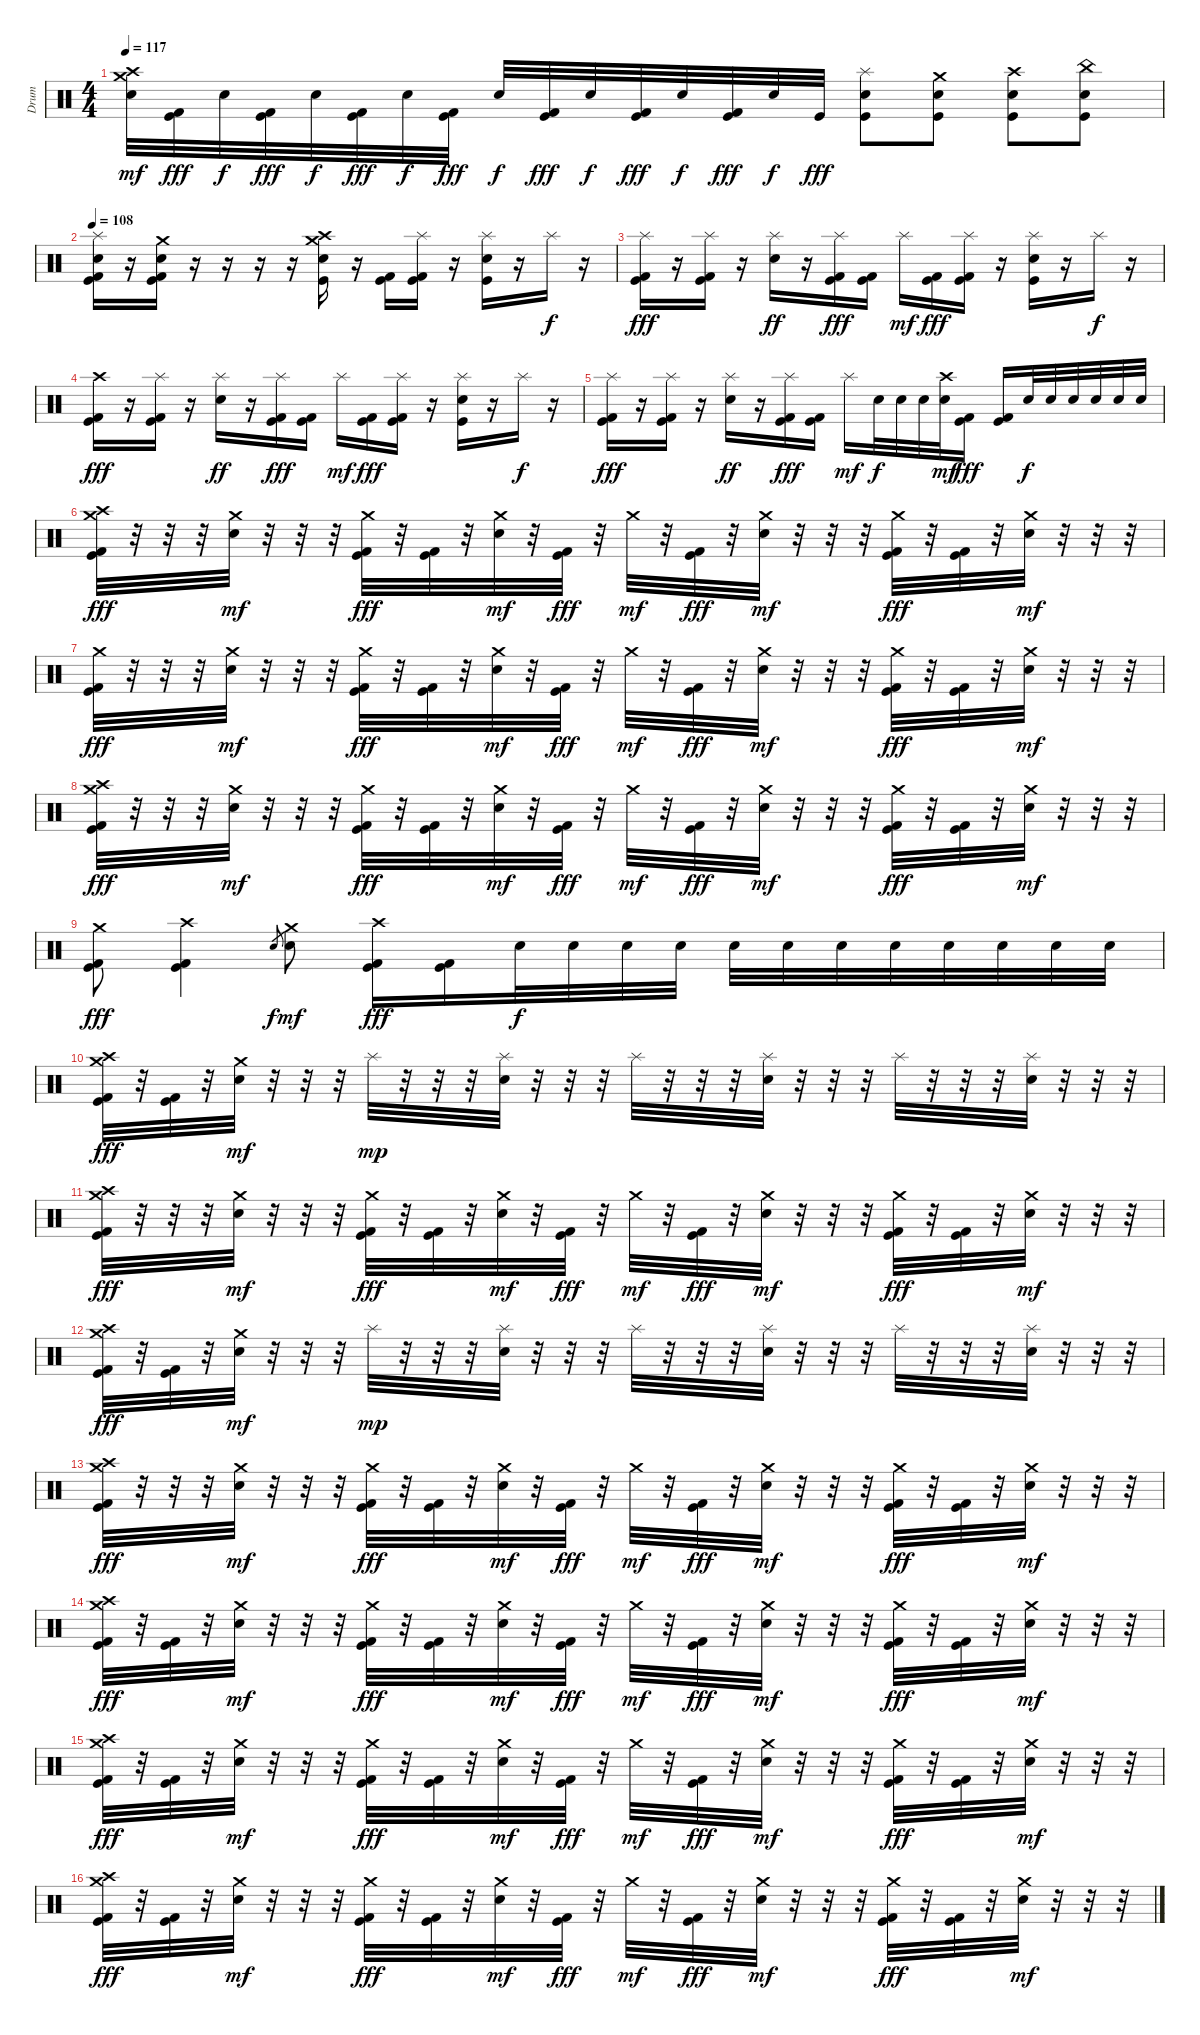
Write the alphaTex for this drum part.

\track ("Drum" "Drum") {instrument percussion}
\staff {score}
\articulation defaults
\ts (4 4)
\tempo 117
\clef neutral
\ks c
("Crash medium (hit)" "Crash high (hit)" "Electric Snare (hit)").32{dy mf} ("Kick (hit) 2" "Kick (hit)").32{dy fff} "Electric Snare (hit)".32{dy f} ("Kick (hit) 2" "Kick (hit)").32{dy fff} "Electric Snare (hit)".32{dy f} ("Kick (hit) 2" "Kick (hit)").32{dy fff} "Electric Snare (hit)".32{dy f} ("Kick (hit) 2" "Kick (hit)").32{dy fff} "Electric Snare (hit)".32{dy f} ("Kick (hit) 2" "Kick (hit)").32{dy fff} "Electric Snare (hit)".32{dy f} ("Kick (hit) 2" "Kick (hit)").32{dy fff} "Electric Snare (hit)".32{dy f} ("Kick (hit) 2" "Kick (hit)").32{dy fff} "Electric Snare (hit)".32{dy f} "Kick (hit)".32{dy fff} ("Splash (hit)" "Electric Snare (hit)" "Kick (hit)").8 ("Crash medium (hit)" "Electric Snare (hit)" "Kick (hit)").8 ("Crash high (hit)" "Electric Snare (hit)" "Kick (hit)").8 ("China (hit)" "Electric Snare (hit)" "Kick (hit)").8 |
\tempo 108
("Splash (hit)" "Electric Snare (hit)" "Kick (hit) 2" "Kick (hit)").16 r.16 ("Crash medium (hit)" "Electric Snare (hit)" "Kick (hit) 2" "Kick (hit)").16 r.16 r.16 r.16 r.16 ("Crash high (hit)" "Crash medium (hit)" "Electric Snare (hit)" "Kick (hit)").16 r.16 ("Kick (hit) 2" "Kick (hit)").16 ("Splash (hit)" "Kick (hit) 2" "Kick (hit)").16 r.16 ("Splash (hit)" "Electric Snare (hit)" "Kick (hit)").16 r.16 "Splash (hit)".16{dy f} r.16 |
("Splash (hit)" "Kick (hit) 2" "Kick (hit)").16{dy fff} r.16 ("Splash (hit)" "Kick (hit) 2" "Kick (hit)").16 r.16 ("Splash (hit)" "Electric Snare (hit)").16{dy ff} r.16 ("Splash (hit)" "Kick (hit) 2" "Kick (hit)").16{dy fff} ("Kick (hit) 2" "Kick (hit)").16 "Splash (hit)".16{dy mf} ("Kick (hit) 2" "Kick (hit)").16{dy fff} ("Splash (hit)" "Kick (hit) 2" "Kick (hit)").16 r.16 ("Splash (hit)" "Electric Snare (hit)" "Kick (hit)").16 r.16 "Splash (hit)".16{dy f} r.16 |
("Crash high (hit)" "Kick (hit) 2" "Kick (hit)").16{dy fff} r.16 ("Splash (hit)" "Kick (hit) 2" "Kick (hit)").16 r.16 ("Splash (hit)" "Electric Snare (hit)").16{dy ff} r.16 ("Splash (hit)" "Kick (hit) 2" "Kick (hit)").16{dy fff} ("Kick (hit) 2" "Kick (hit)").16 "Splash (hit)".16{dy mf} ("Kick (hit) 2" "Kick (hit)").16{dy fff} ("Splash (hit)" "Kick (hit) 2" "Kick (hit)").16 r.16 ("Splash (hit)" "Electric Snare (hit)" "Kick (hit)").16 r.16 "Splash (hit)".16{dy f} r.16 |
("Splash (hit)" "Kick (hit) 2" "Kick (hit)").16{dy fff} r.16 ("Splash (hit)" "Kick (hit) 2" "Kick (hit)").16 r.16 ("Splash (hit)" "Electric Snare (hit)").16{dy ff} r.16 ("Splash (hit)" "Kick (hit) 2" "Kick (hit)").16{dy fff} ("Kick (hit) 2" "Kick (hit)").16 "Splash (hit)".16{dy mf} "Electric Snare (hit)".32{dy f} "Electric Snare (hit)".32 "Electric Snare (hit)".32 ("Crash high (hit)" "Electric Snare (hit)").32{dy mf} ("Kick (hit) 2" "Kick (hit)").16{dy fff} ("Kick (hit) 2" "Kick (hit)").16 "Electric Snare (hit)".32{dy f} "Electric Snare (hit)".32 "Electric Snare (hit)".32 "Electric Snare (hit)".32 "Electric Snare (hit)".32 "Electric Snare (hit)".32 |
("Crash medium (hit)" "Crash high (hit)" "Kick (hit) 2" "Kick (hit)").32{dy fff} r.32 r.32 r.32 ("Crash medium (hit)" "Electric Snare (hit)").32{dy mf} r.32 r.32 r.32 ("Crash medium (hit)" "Kick (hit) 2" "Kick (hit)").32{dy fff} r.32 ("Kick (hit) 2" "Kick (hit)").32 r.32 ("Crash medium (hit)" "Electric Snare (hit)").32{dy mf} r.32 ("Kick (hit) 2" "Kick (hit)").32{dy fff} r.32 "Crash medium (hit)".32{dy mf} r.32 ("Kick (hit) 2" "Kick (hit)").32{dy fff} r.32 ("Crash medium (hit)" "Electric Snare (hit)").32{dy mf} r.32 r.32 r.32 ("Crash medium (hit)" "Kick (hit) 2" "Kick (hit)").32{dy fff} r.32 ("Kick (hit) 2" "Kick (hit)").32 r.32 ("Crash medium (hit)" "Electric Snare (hit)").32{dy mf} r.32 r.32 r.32 |
("Crash medium (hit)" "Kick (hit) 2" "Kick (hit)").32{dy fff} r.32 r.32 r.32 ("Crash medium (hit)" "Electric Snare (hit)").32{dy mf} r.32 r.32 r.32 ("Crash medium (hit)" "Kick (hit) 2" "Kick (hit)").32{dy fff} r.32 ("Kick (hit) 2" "Kick (hit)").32 r.32 ("Crash medium (hit)" "Electric Snare (hit)").32{dy mf} r.32 ("Kick (hit) 2" "Kick (hit)").32{dy fff} r.32 "Crash medium (hit)".32{dy mf} r.32 ("Kick (hit) 2" "Kick (hit)").32{dy fff} r.32 ("Crash medium (hit)" "Electric Snare (hit)").32{dy mf} r.32 r.32 r.32 ("Crash medium (hit)" "Kick (hit) 2" "Kick (hit)").32{dy fff} r.32 ("Kick (hit) 2" "Kick (hit)").32 r.32 ("Crash medium (hit)" "Electric Snare (hit)").32{dy mf} r.32 r.32 r.32 |
("Crash medium (hit)" "Crash high (hit)" "Kick (hit) 2" "Kick (hit)").32{dy fff} r.32 r.32 r.32 ("Crash medium (hit)" "Electric Snare (hit)").32{dy mf} r.32 r.32 r.32 ("Crash medium (hit)" "Kick (hit) 2" "Kick (hit)").32{dy fff} r.32 ("Kick (hit) 2" "Kick (hit)").32 r.32 ("Crash medium (hit)" "Electric Snare (hit)").32{dy mf} r.32 ("Kick (hit) 2" "Kick (hit)").32{dy fff} r.32 "Crash medium (hit)".32{dy mf} r.32 ("Kick (hit) 2" "Kick (hit)").32{dy fff} r.32 ("Crash medium (hit)" "Electric Snare (hit)").32{dy mf} r.32 r.32 r.32 ("Crash medium (hit)" "Kick (hit) 2" "Kick (hit)").32{dy fff} r.32 ("Kick (hit) 2" "Kick (hit)").32 r.32 ("Crash medium (hit)" "Electric Snare (hit)").32{dy mf} r.32 r.32 r.32 |
("Crash medium (hit)" "Kick (hit) 2" "Kick (hit)").8{dy fff} ("Crash high (hit)" "Kick (hit) 2" "Kick (hit)").4 "Electric Snare (hit)"{sl}.8{gr dy f} ("Crash medium (hit)" "Electric Snare (hit)").8{dy mf} ("Crash high (hit)" "Kick (hit) 2" "Kick (hit)").16{dy fff} ("Kick (hit) 2" "Kick (hit)").16 "Electric Snare (hit)".32{dy f} "Electric Snare (hit)".32 "Electric Snare (hit)".32 "Electric Snare (hit)".32 "Electric Snare (hit)".32 "Electric Snare (hit)".32 "Electric Snare (hit)".32 "Electric Snare (hit)".32 "Electric Snare (hit)".32 "Electric Snare (hit)".32 "Electric Snare (hit)".32 "Electric Snare (hit)".32 |
("Crash medium (hit)" "Crash high (hit)" "Kick (hit) 2" "Kick (hit)").32{dy fff} r.32 ("Kick (hit) 2" "Kick (hit)").32 r.32 ("Crash medium (hit)" "Electric Snare (hit)").32{dy mf} r.32 r.32 r.32 "Splash (hit)".32{dy mp} r.32 r.32 r.32 ("Splash (hit)" "Electric Snare (hit)").32 r.32 r.32 r.32 "Splash (hit)".32 r.32 r.32 r.32 ("Splash (hit)" "Electric Snare (hit)").32 r.32 r.32 r.32 "Splash (hit)".32 r.32 r.32 r.32 ("Splash (hit)" "Electric Snare (hit)").32 r.32 r.32 r.32 |
("Crash medium (hit)" "Crash high (hit)" "Kick (hit) 2" "Kick (hit)").32{dy fff} r.32 r.32 r.32 ("Crash medium (hit)" "Electric Snare (hit)").32{dy mf} r.32 r.32 r.32 ("Crash medium (hit)" "Kick (hit) 2" "Kick (hit)").32{dy fff} r.32 ("Kick (hit) 2" "Kick (hit)").32 r.32 ("Crash medium (hit)" "Electric Snare (hit)").32{dy mf} r.32 ("Kick (hit) 2" "Kick (hit)").32{dy fff} r.32 "Crash medium (hit)".32{dy mf} r.32 ("Kick (hit) 2" "Kick (hit)").32{dy fff} r.32 ("Crash medium (hit)" "Electric Snare (hit)").32{dy mf} r.32 r.32 r.32 ("Crash medium (hit)" "Kick (hit) 2" "Kick (hit)").32{dy fff} r.32 ("Kick (hit) 2" "Kick (hit)").32 r.32 ("Crash medium (hit)" "Electric Snare (hit)").32{dy mf} r.32 r.32 r.32 |
("Crash medium (hit)" "Crash high (hit)" "Kick (hit) 2" "Kick (hit)").32{dy fff} r.32 ("Kick (hit) 2" "Kick (hit)").32 r.32 ("Crash medium (hit)" "Electric Snare (hit)").32{dy mf} r.32 r.32 r.32 "Splash (hit)".32{dy mp} r.32 r.32 r.32 ("Splash (hit)" "Electric Snare (hit)").32 r.32 r.32 r.32 "Splash (hit)".32 r.32 r.32 r.32 ("Splash (hit)" "Electric Snare (hit)").32 r.32 r.32 r.32 "Splash (hit)".32 r.32 r.32 r.32 ("Splash (hit)" "Electric Snare (hit)").32 r.32 r.32 r.32 |
("Crash medium (hit)" "Crash high (hit)" "Kick (hit) 2" "Kick (hit)").32{dy fff} r.32 r.32 r.32 ("Crash medium (hit)" "Electric Snare (hit)").32{dy mf} r.32 r.32 r.32 ("Crash medium (hit)" "Kick (hit) 2" "Kick (hit)").32{dy fff} r.32 ("Kick (hit) 2" "Kick (hit)").32 r.32 ("Crash medium (hit)" "Electric Snare (hit)").32{dy mf} r.32 ("Kick (hit) 2" "Kick (hit)").32{dy fff} r.32 "Crash medium (hit)".32{dy mf} r.32 ("Kick (hit) 2" "Kick (hit)").32{dy fff} r.32 ("Crash medium (hit)" "Electric Snare (hit)").32{dy mf} r.32 r.32 r.32 ("Crash medium (hit)" "Kick (hit) 2" "Kick (hit)").32{dy fff} r.32 ("Kick (hit) 2" "Kick (hit)").32 r.32 ("Crash medium (hit)" "Electric Snare (hit)").32{dy mf} r.32 r.32 r.32 |
("Crash medium (hit)" "Crash high (hit)" "Kick (hit) 2" "Kick (hit)").32{dy fff} r.32 ("Kick (hit) 2" "Kick (hit)").32 r.32 ("Crash medium (hit)" "Electric Snare (hit)").32{dy mf} r.32 r.32 r.32 ("Crash medium (hit)" "Kick (hit) 2" "Kick (hit)").32{dy fff} r.32 ("Kick (hit) 2" "Kick (hit)").32 r.32 ("Crash medium (hit)" "Electric Snare (hit)").32{dy mf} r.32 ("Kick (hit) 2" "Kick (hit)").32{dy fff} r.32 "Crash medium (hit)".32{dy mf} r.32 ("Kick (hit) 2" "Kick (hit)").32{dy fff} r.32 ("Crash medium (hit)" "Electric Snare (hit)").32{dy mf} r.32 r.32 r.32 ("Crash medium (hit)" "Kick (hit) 2" "Kick (hit)").32{dy fff} r.32 ("Kick (hit) 2" "Kick (hit)").32 r.32 ("Crash medium (hit)" "Electric Snare (hit)").32{dy mf} r.32 r.32 r.32 |
("Crash medium (hit)" "Crash high (hit)" "Kick (hit) 2" "Kick (hit)").32{dy fff} r.32 ("Kick (hit) 2" "Kick (hit)").32 r.32 ("Crash medium (hit)" "Electric Snare (hit)").32{dy mf} r.32 r.32 r.32 ("Crash medium (hit)" "Kick (hit) 2" "Kick (hit)").32{dy fff} r.32 ("Kick (hit) 2" "Kick (hit)").32 r.32 ("Crash medium (hit)" "Electric Snare (hit)").32{dy mf} r.32 ("Kick (hit) 2" "Kick (hit)").32{dy fff} r.32 "Crash medium (hit)".32{dy mf} r.32 ("Kick (hit) 2" "Kick (hit)").32{dy fff} r.32 ("Crash medium (hit)" "Electric Snare (hit)").32{dy mf} r.32 r.32 r.32 ("Crash medium (hit)" "Kick (hit) 2" "Kick (hit)").32{dy fff} r.32 ("Kick (hit) 2" "Kick (hit)").32 r.32 ("Crash medium (hit)" "Electric Snare (hit)").32{dy mf} r.32 r.32 r.32 |
("Crash medium (hit)" "Crash high (hit)" "Kick (hit) 2" "Kick (hit)").32{dy fff} r.32 ("Kick (hit) 2" "Kick (hit)").32 r.32 ("Crash medium (hit)" "Electric Snare (hit)").32{dy mf} r.32 r.32 r.32 ("Crash medium (hit)" "Kick (hit) 2" "Kick (hit)").32{dy fff} r.32 ("Kick (hit) 2" "Kick (hit)").32 r.32 ("Crash medium (hit)" "Electric Snare (hit)").32{dy mf} r.32 ("Kick (hit) 2" "Kick (hit)").32{dy fff} r.32 "Crash medium (hit)".32{dy mf} r.32 ("Kick (hit) 2" "Kick (hit)").32{dy fff} r.32 ("Crash medium (hit)" "Electric Snare (hit)").32{dy mf} r.32 r.32 r.32 ("Crash medium (hit)" "Kick (hit) 2" "Kick (hit)").32{dy fff} r.32 ("Kick (hit) 2" "Kick (hit)").32 r.32 ("Crash medium (hit)" "Electric Snare (hit)").32{dy mf} r.32 r.32 r.32
